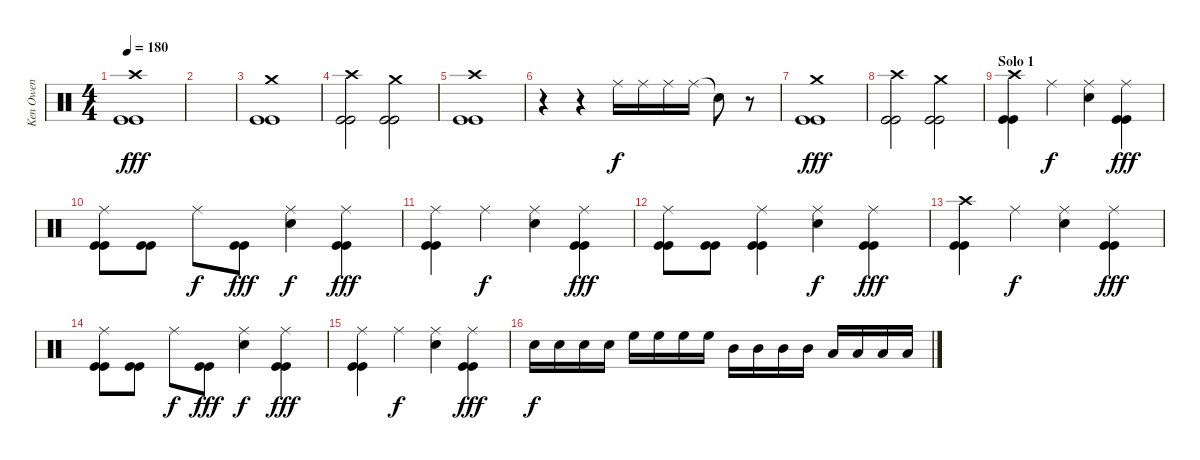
\track ("Ken Owen" "Ken Owen") {instrument percussion}
\staff {score}
\articulation defaults
\ts (4 4)
\tempo 180
\clef neutral
\ks c
("Crash high (hit)" "Kick (hit)" "Kick (hit)").1{dy fff} |
|
("Crash medium (hit)" "Kick (hit)" "Kick (hit)").1 |
("Crash high (hit)" "Kick (hit)" "Kick (hit)").2 ("Crash medium (hit)" "Kick (hit)" "Kick (hit)").2 |
("Crash high (hit)" "Kick (hit)" "Kick (hit)").1 |
r.4 r.4 "Ride (middle)".16{dy f} "Ride (middle)".16 "Ride (middle)".16 "Ride (middle)".16 "Snare (hit)"{t}.8 r.8 |
("Crash medium (hit)" "Kick (hit)" "Kick (hit)").1{dy fff} |
("Crash high (hit)" "Kick (hit)" "Kick (hit)").2 ("Crash medium (hit)" "Kick (hit)" "Kick (hit)").2 |
\section ("" "Solo 1")
("Crash high (hit)" "Kick (hit)" "Kick (hit)").4 "Ride (middle)".4{dy f} ("Ride (middle)" "Snare (hit) 2").4 ("Ride (middle)" "Kick (hit)" "Kick (hit)").4{dy fff} |
("Ride (middle)" "Kick (hit)" "Kick (hit)").8 ("Kick (hit)" "Kick (hit)").8 "Ride (middle)".8{dy f} ("Kick (hit)" "Kick (hit)").8{dy fff} ("Ride (middle)" "Snare (hit) 2").4{dy f} ("Ride (middle)" "Kick (hit)" "Kick (hit)").4{dy fff} |
("Ride (middle)" "Kick (hit)" "Kick (hit)").4 "Ride (middle)".4{dy f} ("Ride (middle)" "Snare (hit) 2").4 ("Ride (middle)" "Kick (hit)" "Kick (hit)").4{dy fff} |
("Ride (middle)" "Kick (hit)" "Kick (hit)").8 ("Kick (hit)" "Kick (hit)").8 ("Ride (middle)" "Kick (hit)" "Kick (hit)").4 ("Ride (middle)" "Snare (hit) 2").4{dy f} ("Ride (middle)" "Kick (hit)" "Kick (hit)").4{dy fff} |
("Crash high (hit)" "Kick (hit)" "Kick (hit)").4 "Ride (middle)".4{dy f} ("Ride (middle)" "Snare (hit) 2").4 ("Ride (middle)" "Kick (hit)" "Kick (hit)").4{dy fff} |
("Ride (middle)" "Kick (hit)" "Kick (hit)").8 ("Kick (hit)" "Kick (hit)").8 "Ride (middle)".8{dy f} ("Kick (hit)" "Kick (hit)").8{dy fff} ("Ride (middle)" "Snare (hit) 2").4{dy f} ("Ride (middle)" "Kick (hit)" "Kick (hit)").4{dy fff} |
("Ride (middle)" "Kick (hit)" "Kick (hit)").4 "Ride (middle)".4{dy f} ("Ride (middle)" "Snare (hit) 2").4 ("Ride (middle)" "Kick (hit)" "Kick (hit)").4{dy fff} |
"Snare (hit) 2".16{dy f} "Snare (hit) 2".16 "Snare (hit) 2".16 "Snare (hit) 2".16 "High Floor Tom (hit)".16 "High Floor Tom (hit)".16 "High Floor Tom (hit)".16 "High Floor Tom (hit)".16 "Mid Tom (hit)".16 "Mid Tom (hit)".16 "Mid Tom (hit)".16 "Mid Tom (hit)".16 "Low Tom (hit)".16 "Low Tom (hit)".16 "Low Tom (hit)".16 "Low Tom (hit)".16
